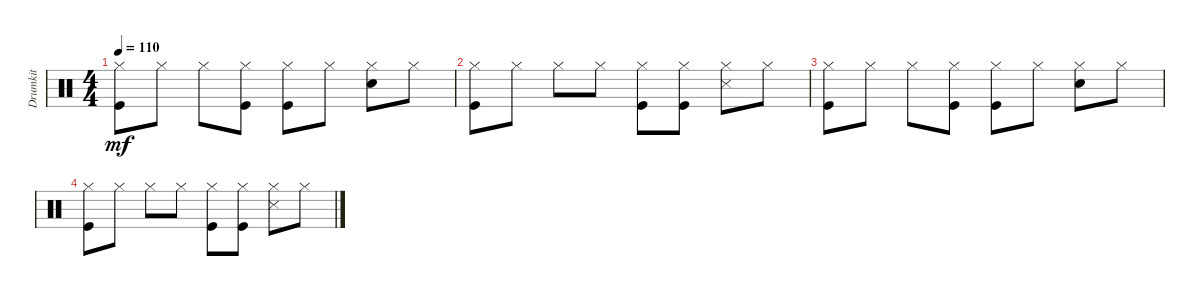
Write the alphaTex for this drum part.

\track ("Drumkit" "Drumkit") {instrument percussion}
\staff {score}
\articulation defaults
\ts (4 4)
\tempo 110
\clef neutral
\ks c
("Hi-Hat (closed)" "Kick (hit)").8{dy mf} "Hi-Hat (closed)".8 "Hi-Hat (closed)".8 ("Hi-Hat (closed)" "Kick (hit)").8 ("Hi-Hat (closed)" "Kick (hit)").8 "Hi-Hat (closed)".8 ("Hi-Hat (closed)" "Snare (hit) 2").8 "Hi-Hat (closed)".8 |
("Hi-Hat (closed)" "Kick (hit)").8 "Hi-Hat (closed)".8 "Hi-Hat (closed)".8 "Hi-Hat (closed)".8 ("Hi-Hat (closed)" "Kick (hit)").8 ("Hi-Hat (closed)" "Kick (hit)").8 ("Hi-Hat (closed)" "Snare (side stick) 3").8 "Hi-Hat (closed)".8 |
("Hi-Hat (closed)" "Kick (hit)").8 "Hi-Hat (closed)".8 "Hi-Hat (closed)".8 ("Hi-Hat (closed)" "Kick (hit)").8 ("Hi-Hat (closed)" "Kick (hit)").8 "Hi-Hat (closed)".8 ("Hi-Hat (closed)" "Snare (hit) 2").8 "Hi-Hat (closed)".8 |
("Hi-Hat (closed)" "Kick (hit)").8 "Hi-Hat (closed)".8 "Hi-Hat (closed)".8 "Hi-Hat (closed)".8 ("Hi-Hat (closed)" "Kick (hit)").8 ("Hi-Hat (closed)" "Kick (hit)").8 ("Hi-Hat (closed)" "Snare (side stick) 3").8 "Hi-Hat (closed)".8
